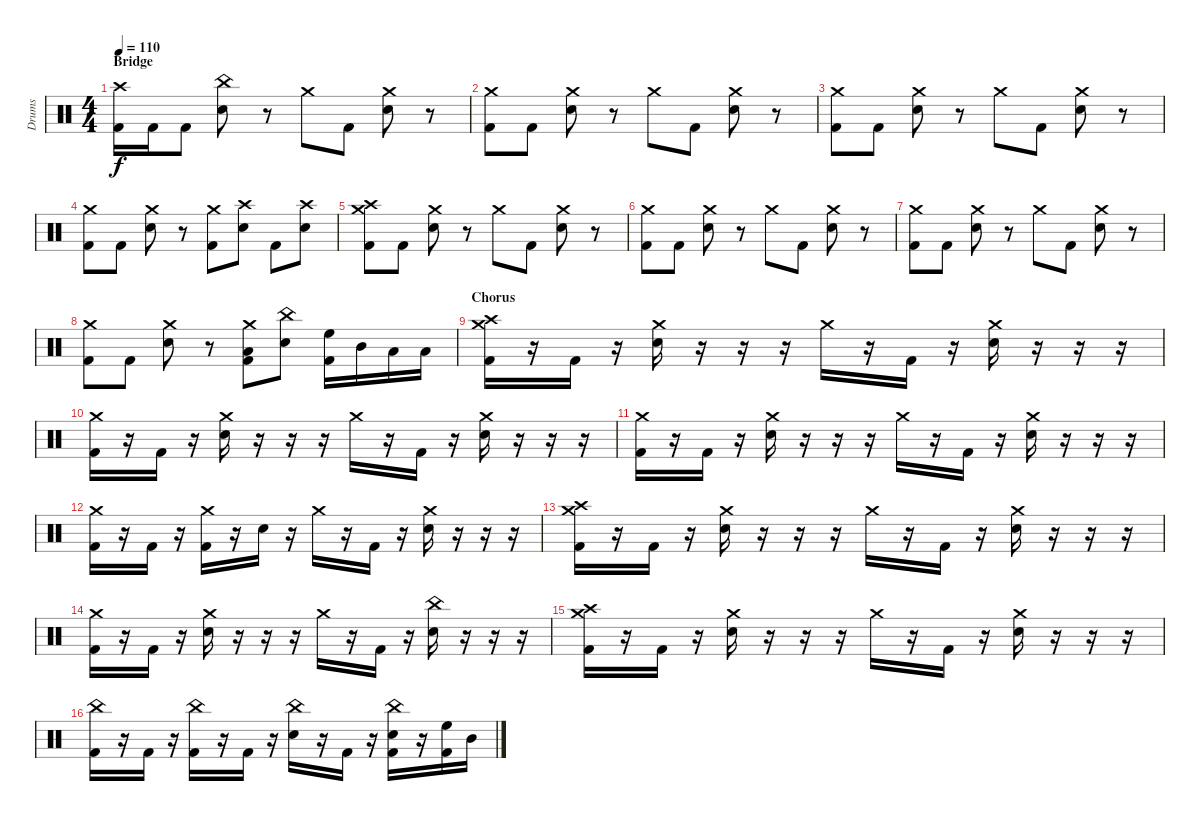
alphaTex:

\track ("Drums" "Drums") {instrument percussion}
\staff {score}
\articulation defaults
\ts (4 4)
\section ("" "Bridge")
\tempo 110
\clef neutral
\ks c
("Crash high (hit)" "Kick (hit) 2").16{dy f} "Kick (hit) 2".16 "Kick (hit) 2".8 ("China (hit)" "Electric Snare (hit)").8 r.8 "Crash medium (hit)".8 "Kick (hit) 2".8 ("Crash medium (hit)" "Electric Snare (hit)").8 r.8 |
("Crash medium (hit)" "Kick (hit) 2").8 "Kick (hit) 2".8 ("Crash medium (hit)" "Electric Snare (hit)").8 r.8 "Crash medium (hit)".8 "Kick (hit) 2".8 ("Crash medium (hit)" "Electric Snare (hit)").8 r.8 |
("Crash medium (hit)" "Kick (hit) 2").8 "Kick (hit) 2".8 ("Crash medium (hit)" "Electric Snare (hit)").8 r.8 "Crash medium (hit)".8 "Kick (hit) 2".8 ("Crash medium (hit)" "Electric Snare (hit)").8 r.8 |
("Crash medium (hit)" "Kick (hit) 2").8 "Kick (hit) 2".8 ("Crash medium (hit)" "Electric Snare (hit)").8 r.8 ("Crash medium (hit)" "Kick (hit) 2").8 ("Crash high (hit)" "Electric Snare (hit)").8 "Kick (hit) 2".8 ("Crash high (hit)" "Electric Snare (hit)").8 |
("Crash medium (hit)" "Crash high (hit)" "Kick (hit) 2").8 "Kick (hit) 2".8 ("Crash medium (hit)" "Electric Snare (hit)").8 r.8 "Crash medium (hit)".8 "Kick (hit) 2".8 ("Crash medium (hit)" "Electric Snare (hit)").8 r.8 |
("Crash medium (hit)" "Kick (hit) 2").8 "Kick (hit) 2".8 ("Crash medium (hit)" "Electric Snare (hit)").8 r.8 "Crash medium (hit)".8 "Kick (hit) 2".8 ("Crash medium (hit)" "Electric Snare (hit)").8 r.8 |
("Crash medium (hit)" "Kick (hit) 2").8 "Kick (hit) 2".8 ("Crash medium (hit)" "Electric Snare (hit)").8 r.8 "Crash medium (hit)".8 "Kick (hit) 2".8 ("Crash medium (hit)" "Electric Snare (hit)").8 r.8 |
("Crash medium (hit)" "Kick (hit) 2").8 "Kick (hit) 2".8 ("Crash medium (hit)" "Electric Snare (hit)").8 r.8 ("Crash medium (hit)" "Low Tom (hit)" "Kick (hit) 2").8 ("China (hit)" "Electric Snare (hit)").8 ("High Floor Tom (hit)" "Kick (hit) 2").16 "Mid Tom (hit)".16 "Low Tom (hit)".16 "Low Floor Tom (hit)".16 |
\section ("" "Chorus")
("Crash high (hit)" "Crash medium (hit)" "Kick (hit) 2").16 r.16 "Kick (hit) 2".16 r.16 ("Crash medium (hit)" "Electric Snare (hit)").16 r.16 r.16 r.16 "Crash medium (hit)".16 r.16 "Kick (hit) 2".16 r.16 ("Crash medium (hit)" "Electric Snare (hit)").16 r.16 r.16 r.16 |
("Crash medium (hit)" "Kick (hit) 2").16 r.16 "Kick (hit) 2".16 r.16 ("Crash medium (hit)" "Electric Snare (hit)").16 r.16 r.16 r.16 "Crash medium (hit)".16 r.16 "Kick (hit) 2".16 r.16 ("Crash medium (hit)" "Electric Snare (hit)").16 r.16 r.16 r.16 |
("Crash medium (hit)" "Kick (hit) 2").16 r.16 "Kick (hit) 2".16 r.16 ("Crash medium (hit)" "Electric Snare (hit)").16 r.16 r.16 r.16 "Crash medium (hit)".16 r.16 "Kick (hit) 2".16 r.16 ("Crash medium (hit)" "Electric Snare (hit)").16 r.16 r.16 r.16 |
("Crash medium (hit)" "Kick (hit) 2").16 r.16 "Kick (hit) 2".16 r.16 ("Crash medium (hit)" "Kick (hit) 2").16 r.16 "Electric Snare (hit)".16 r.16 "Crash medium (hit)".16 r.16 "Kick (hit) 2".16 r.16 ("Crash medium (hit)" "Electric Snare (hit)").16 r.16 r.16 r.16 |
("Crash medium (hit)" "Crash high (hit)" "Kick (hit) 2").16 r.16 "Kick (hit) 2".16 r.16 ("Crash medium (hit)" "Electric Snare (hit)").16 r.16 r.16 r.16 "Crash medium (hit)".16 r.16 "Kick (hit) 2".16 r.16 ("Crash medium (hit)" "Electric Snare (hit)").16 r.16 r.16 r.16 |
("Crash medium (hit)" "Kick (hit) 2").16 r.16 "Kick (hit) 2".16 r.16 ("Crash medium (hit)" "Electric Snare (hit)").16 r.16 r.16 r.16 "Crash medium (hit)".16 r.16 "Kick (hit) 2".16 r.16 ("China (hit)" "Electric Snare (hit)").16 r.16 r.16 r.16 |
("Crash medium (hit)" "Crash high (hit)" "Kick (hit) 2").16 r.16 "Kick (hit) 2".16 r.16 ("Crash medium (hit)" "Electric Snare (hit)").16 r.16 r.16 r.16 "Crash medium (hit)".16 r.16 "Kick (hit) 2".16 r.16 ("Crash medium (hit)" "Electric Snare (hit)").16 r.16 r.16 r.16 |
("China (hit)" "Kick (hit) 2").16 r.16 "Kick (hit) 2".16 r.16 ("China (hit)" "Kick (hit) 2").16 r.16 "Kick (hit) 2".16 r.16 ("China (hit)" "Electric Snare (hit)").16 r.16 "Kick (hit) 2".16 r.16 ("China (hit)" "Electric Snare (hit)" "Kick (hit) 2").16 r.16 ("High Floor Tom (hit)" "Kick (hit) 2").16 "Mid Tom (hit)".16
